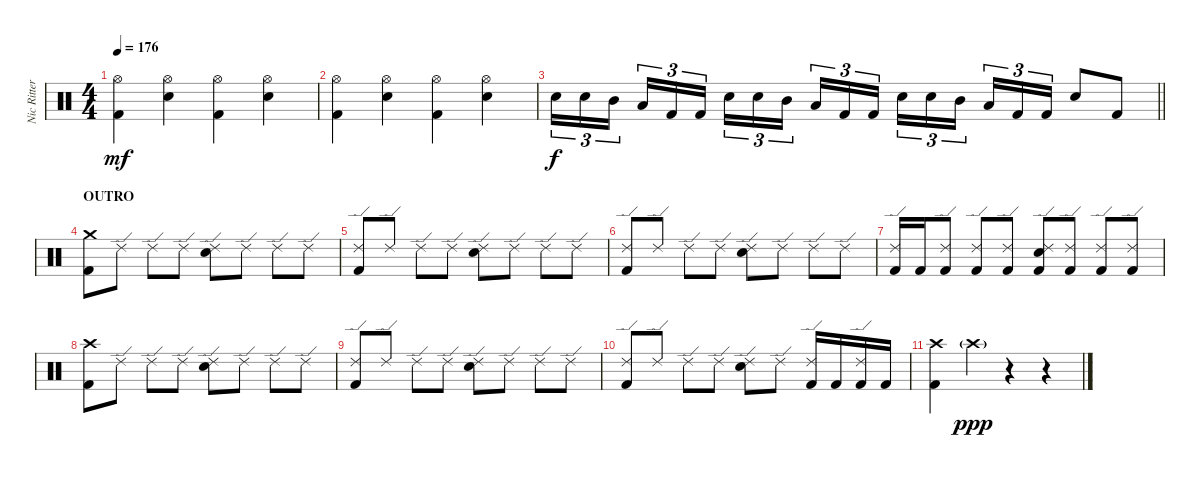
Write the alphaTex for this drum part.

\track ("Nic Ritter" "Nic Ritter") {instrument percussion}
\staff {score}
\articulation defaults
\ts (4 4)
\tempo 176
\clef neutral
\ks c
("Hi-Hat (open)" "Kick (hit) 2").4{dy mf} ("Hi-Hat (open)" "Electric Snare (hit)").4 ("Hi-Hat (open)" "Kick (hit) 2").4 ("Hi-Hat (open)" "Electric Snare (hit)").4 |
("Hi-Hat (open)" "Kick (hit) 2").4 ("Hi-Hat (open)" "Electric Snare (hit)").4 ("Hi-Hat (open)" "Kick (hit) 2").4 ("Hi-Hat (open)" "Electric Snare (hit)").4 |
\barLineRight lightlight "Electric Snare (hit)".16{tu (3 2) dy f} "Electric Snare (hit)".16{tu (3 2)} "Mid Tom (hit)".16{tu (3 2) beam splitsecondary} "Low Tom (hit)".16{tu (3 2)} "Kick (hit) 2".16{tu (3 2)} "Kick (hit) 2".16{tu (3 2)} "Electric Snare (hit)".16{tu (3 2)} "Electric Snare (hit)".16{tu (3 2)} "Mid Tom (hit)".16{tu (3 2) beam splitsecondary} "Low Tom (hit)".16{tu (3 2)} "Kick (hit) 2".16{tu (3 2)} "Kick (hit) 2".16{tu (3 2)} "Electric Snare (hit)".16{tu (3 2)} "Electric Snare (hit)".16{tu (3 2)} "Mid Tom (hit)".16{tu (3 2) beam splitsecondary} "Low Tom (hit)".16{tu (3 2)} "Kick (hit) 2".16{tu (3 2)} "Kick (hit) 2".16{tu (3 2)} "Electric Snare (hit)".8 "Kick (hit) 2".8
|
\section ("" "OUTRO")
("Crash medium (hit)" "Kick (hit) 2").8 "Ride (edge) 2".8 "Ride (edge) 2".8 "Ride (edge) 2".8 ("Ride (edge) 2" "Electric Snare (hit)").8 "Ride (edge) 2".8 "Ride (edge) 2".8 "Ride (edge) 2".8 |
("Ride (edge) 2" "Kick (hit) 2").8 "Ride (edge) 2".8 "Ride (edge) 2".8 "Ride (edge) 2".8 ("Ride (edge) 2" "Electric Snare (hit)").8 "Ride (edge) 2".8 "Ride (edge) 2".8 "Ride (edge) 2".8 |
("Ride (edge) 2" "Kick (hit) 2").8 "Ride (edge) 2".8 "Ride (edge) 2".8 "Ride (edge) 2".8 ("Ride (edge) 2" "Electric Snare (hit)").8 "Ride (edge) 2".8 "Ride (edge) 2".8 "Ride (edge) 2".8 |
("Ride (edge) 2" "Kick (hit) 2").16 "Kick (hit) 2".16 ("Ride (edge) 2" "Kick (hit) 2").8 ("Ride (edge) 2" "Kick (hit) 2").8 ("Ride (edge) 2" "Kick (hit) 2").8 ("Ride (edge) 2" "Electric Snare (hit)" "Kick (hit) 2").8 ("Ride (edge) 2" "Kick (hit) 2").8 ("Ride (edge) 2" "Kick (hit) 2").8 ("Ride (edge) 2" "Kick (hit) 2").8 |
("Crash high (hit)" "Kick (hit) 2").8 "Ride (edge) 2".8 "Ride (edge) 2".8 "Ride (edge) 2".8 ("Ride (edge) 2" "Electric Snare (hit)").8 "Ride (edge) 2".8 "Ride (edge) 2".8 "Ride (edge) 2".8 |
("Ride (edge) 2" "Kick (hit) 2").8 "Ride (edge) 2".8 "Ride (edge) 2".8 "Ride (edge) 2".8 ("Ride (edge) 2" "Electric Snare (hit)").8 "Ride (edge) 2".8 "Ride (edge) 2".8 "Ride (edge) 2".8 |
("Ride (edge) 2" "Kick (hit) 2").8 "Ride (edge) 2".8 "Ride (edge) 2".8 "Ride (edge) 2".8 ("Ride (edge) 2" "Electric Snare (hit)").8 "Ride (edge) 2".8 ("Ride (edge) 2" "Kick (hit) 2").16 "Kick (hit) 2".16 ("Ride (edge) 2" "Kick (hit) 2").16 "Kick (hit) 2".16 |
("Crash high (hit)" "Kick (hit) 2").4 "Crash high (hit)"{g}.4{dy ppp volume 0} r.4 r.4
